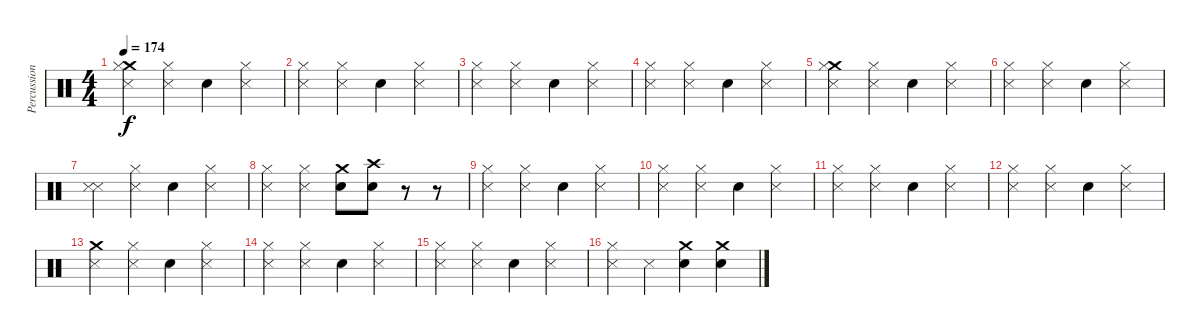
\track ("Percussion" "Percussion") {instrument percussion}
\staff {score}
\articulation defaults
\ts (4 4)
\tempo 174
\clef neutral
\ks c
("Crash medium (hit)" "Hi-Hat (closed)" "Metronome (hit)").4{dy f} ("Hi-Hat (closed)" "Metronome (hit)").4 "Electric Snare (hit)".4 ("Hi-Hat (closed)" "Metronome (hit)").4 |
("Hi-Hat (closed)" "Metronome (hit)").4 ("Hi-Hat (closed)" "Metronome (hit)").4 "Electric Snare (hit)".4 ("Hi-Hat (closed)" "Metronome (hit)").4 |
("Hi-Hat (closed)" "Metronome (hit)").4 ("Hi-Hat (closed)" "Metronome (hit)").4 "Electric Snare (hit)".4 ("Hi-Hat (closed)" "Metronome (hit)").4 |
("Hi-Hat (closed)" "Metronome (hit)").4 ("Hi-Hat (closed)" "Metronome (hit)").4 "Electric Snare (hit)".4 ("Hi-Hat (closed)" "Metronome (hit)").4 |
("Crash medium (hit)" "Hi-Hat (closed)" "Metronome (hit)").4 ("Hi-Hat (closed)" "Metronome (hit)").4 "Electric Snare (hit)".4 ("Hi-Hat (closed)" "Metronome (hit)").4 |
("Hi-Hat (closed)" "Metronome (hit)").4 ("Hi-Hat (closed)" "Metronome (hit)").4 "Electric Snare (hit)".4 ("Hi-Hat (closed)" "Metronome (hit)").4 |
("Metronome (hit)" "Metronome (hit)").4 ("Hi-Hat (closed)" "Metronome (hit)").4 "Electric Snare (hit)".4 ("Hi-Hat (closed)" "Metronome (hit)").4 |
("Hi-Hat (closed)" "Metronome (hit)").4 ("Hi-Hat (closed)" "Metronome (hit)").4 ("Crash medium (hit)" "Electric Snare (hit)").8 ("Crash high (hit)" "Electric Snare (hit)").8 r.8 r.8 |
("Hi-Hat (closed)" "Metronome (hit)").4 ("Hi-Hat (closed)" "Metronome (hit)").4 "Electric Snare (hit)".4 ("Hi-Hat (closed)" "Metronome (hit)").4 |
("Hi-Hat (closed)" "Metronome (hit)").4 ("Hi-Hat (closed)" "Metronome (hit)").4 "Electric Snare (hit)".4 ("Hi-Hat (closed)" "Metronome (hit)").4 |
("Hi-Hat (closed)" "Metronome (hit)").4 ("Hi-Hat (closed)" "Metronome (hit)").4 "Electric Snare (hit)".4 ("Hi-Hat (closed)" "Metronome (hit)").4 |
("Hi-Hat (closed)" "Metronome (hit)").4 ("Hi-Hat (closed)" "Metronome (hit)").4 "Electric Snare (hit)".4 ("Hi-Hat (closed)" "Metronome (hit)").4 |
("Crash medium (hit)" "Metronome (hit)").4 ("Hi-Hat (closed)" "Metronome (hit)").4 "Electric Snare (hit)".4 ("Hi-Hat (closed)" "Metronome (hit)").4 |
("Hi-Hat (closed)" "Metronome (hit)").4 ("Hi-Hat (closed)" "Metronome (hit)").4 "Electric Snare (hit)".4 ("Hi-Hat (closed)" "Metronome (hit)").4 |
("Hi-Hat (closed)" "Metronome (hit)").4 ("Hi-Hat (closed)" "Metronome (hit)").4 "Electric Snare (hit)".4 ("Hi-Hat (closed)" "Metronome (hit)").4 |
("Hi-Hat (closed)" "Metronome (hit)").4 "Metronome (hit)".4 ("Crash medium (hit)" "Electric Snare (hit)").4 ("Crash medium (hit)" "Electric Snare (hit)").4
